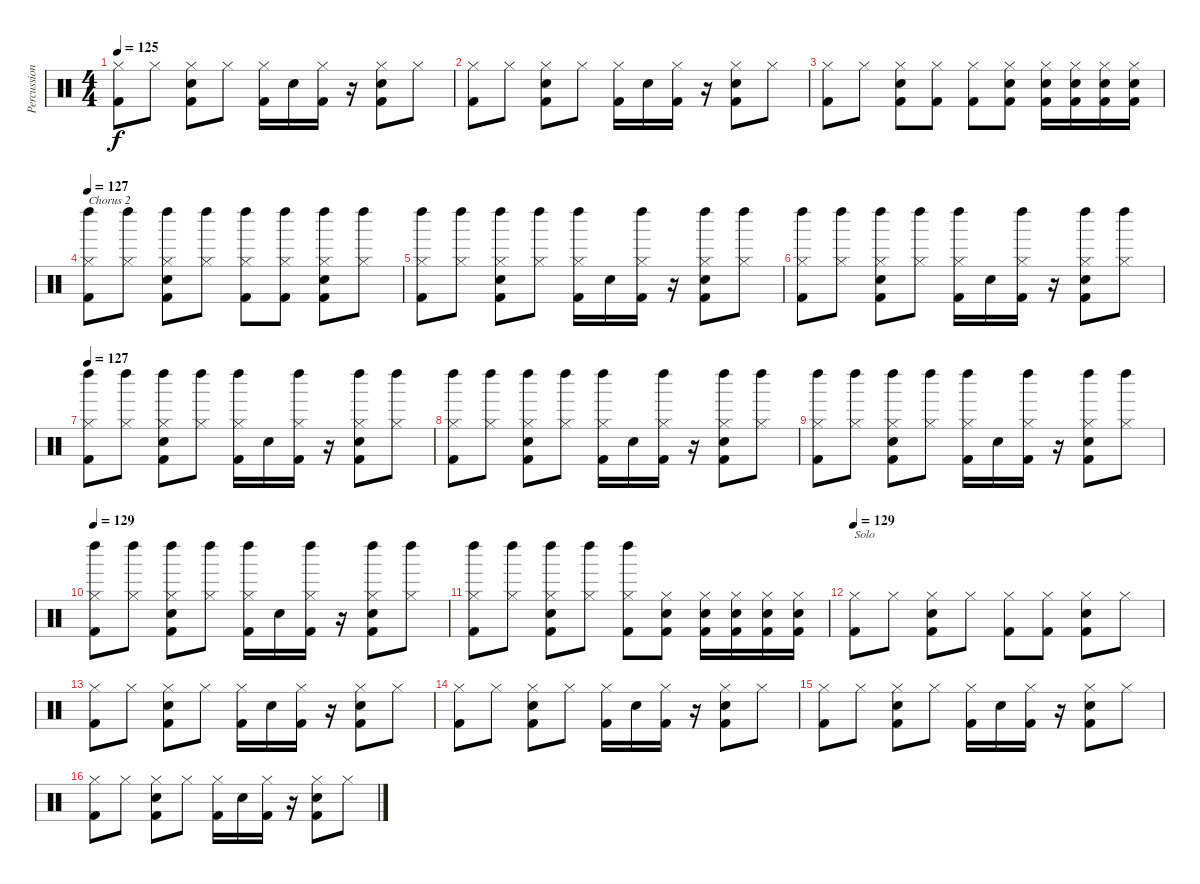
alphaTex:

\track ("Percussion" "Percussion") {instrument percussion}
\staff {score}
\articulation defaults
\ts (4 4)
\tempo 125
\clef neutral
\ks c
("Hi-Hat (closed)" "Kick (hit) 2").8{dy f} "Hi-Hat (closed)".8 ("Hi-Hat (closed)" "Electric Snare (hit)" "Kick (hit) 2").8 "Hi-Hat (closed)".8 ("Hi-Hat (closed)" "Kick (hit) 2").16 "Electric Snare (hit)".16 ("Hi-Hat (closed)" "Kick (hit) 2").16 r.16 ("Hi-Hat (closed)" "Electric Snare (hit)" "Kick (hit) 2").8 "Hi-Hat (closed)".8 |
("Hi-Hat (closed)" "Kick (hit) 2").8 "Hi-Hat (closed)".8 ("Hi-Hat (closed)" "Electric Snare (hit)" "Kick (hit) 2").8 "Hi-Hat (closed)".8 ("Hi-Hat (closed)" "Kick (hit) 2").16 "Electric Snare (hit)".16 ("Hi-Hat (closed)" "Kick (hit) 2").16 r.16 ("Hi-Hat (closed)" "Electric Snare (hit)" "Kick (hit) 2").8 "Hi-Hat (closed)".8 |
("Hi-Hat (closed)" "Kick (hit) 2").8 "Hi-Hat (closed)".8 ("Hi-Hat (closed)" "Electric Snare (hit)" "Kick (hit) 2").8 ("Hi-Hat (closed)" "Kick (hit) 2").8 ("Hi-Hat (closed)" "Kick (hit) 2").8 ("Hi-Hat (closed)" "Electric Snare (hit)" "Kick (hit) 2").8 ("Hi-Hat (closed)" "Electric Snare (hit)" "Kick (hit) 2").16 ("Hi-Hat (closed)" "Electric Snare (hit)" "Kick (hit) 2").16 ("Hi-Hat (closed)" "Electric Snare (hit)" "Kick (hit) 2").16 ("Hi-Hat (closed)" "Electric Snare (hit)" "Kick (hit) 2").16 |
\tempo 127
("Hi-Hat (closed)" "Kick (hit) 2" "Left Maraca (hit)").8{txt "Chorus 2"} ("Hi-Hat (closed)" "Left Maraca (hit)").8 ("Hi-Hat (closed)" "Electric Snare (hit)" "Kick (hit) 2" "Left Maraca (hit)").8 ("Hi-Hat (closed)" "Left Maraca (hit)").8 ("Hi-Hat (closed)" "Kick (hit) 2" "Left Maraca (hit)").8 ("Hi-Hat (closed)" "Kick (hit) 2" "Left Maraca (hit)").8 ("Hi-Hat (closed)" "Electric Snare (hit)" "Kick (hit) 2" "Left Maraca (hit)").8 ("Hi-Hat (closed)" "Left Maraca (hit)").8 |
("Hi-Hat (closed)" "Kick (hit) 2" "Left Maraca (hit)").8 ("Hi-Hat (closed)" "Left Maraca (hit)").8 ("Hi-Hat (closed)" "Electric Snare (hit)" "Kick (hit) 2" "Left Maraca (hit)").8 ("Hi-Hat (closed)" "Left Maraca (hit)").8 ("Hi-Hat (closed)" "Kick (hit) 2" "Left Maraca (hit)").16 "Electric Snare (hit)".16 ("Hi-Hat (closed)" "Kick (hit) 2" "Left Maraca (hit)").16 r.16 ("Hi-Hat (closed)" "Electric Snare (hit)" "Kick (hit) 2" "Left Maraca (hit)").8 ("Hi-Hat (closed)" "Left Maraca (hit)").8 |
("Hi-Hat (closed)" "Kick (hit) 2" "Left Maraca (hit)").8 ("Hi-Hat (closed)" "Left Maraca (hit)").8 ("Hi-Hat (closed)" "Electric Snare (hit)" "Kick (hit) 2" "Left Maraca (hit)").8 ("Hi-Hat (closed)" "Left Maraca (hit)").8 ("Hi-Hat (closed)" "Kick (hit) 2" "Left Maraca (hit)").16 "Electric Snare (hit)".16 ("Hi-Hat (closed)" "Kick (hit) 2" "Left Maraca (hit)").16 r.16 ("Hi-Hat (closed)" "Electric Snare (hit)" "Kick (hit) 2" "Left Maraca (hit)").8 ("Hi-Hat (closed)" "Left Maraca (hit)").8 |
\tempo 127
("Hi-Hat (closed)" "Kick (hit) 2" "Left Maraca (hit)").8 ("Hi-Hat (closed)" "Left Maraca (hit)").8 ("Hi-Hat (closed)" "Electric Snare (hit)" "Kick (hit) 2" "Left Maraca (hit)").8 ("Hi-Hat (closed)" "Left Maraca (hit)").8 ("Hi-Hat (closed)" "Kick (hit) 2" "Left Maraca (hit)").16 "Electric Snare (hit)".16 ("Hi-Hat (closed)" "Kick (hit) 2" "Left Maraca (hit)").16 r.16 ("Hi-Hat (closed)" "Electric Snare (hit)" "Kick (hit) 2" "Left Maraca (hit)").8 ("Hi-Hat (closed)" "Left Maraca (hit)").8 |
("Hi-Hat (closed)" "Kick (hit) 2" "Left Maraca (hit)").8 ("Hi-Hat (closed)" "Left Maraca (hit)").8 ("Hi-Hat (closed)" "Electric Snare (hit)" "Kick (hit) 2" "Left Maraca (hit)").8 ("Hi-Hat (closed)" "Left Maraca (hit)").8 ("Hi-Hat (closed)" "Kick (hit) 2" "Left Maraca (hit)").16 "Electric Snare (hit)".16 ("Hi-Hat (closed)" "Kick (hit) 2" "Left Maraca (hit)").16 r.16 ("Hi-Hat (closed)" "Electric Snare (hit)" "Kick (hit) 2" "Left Maraca (hit)").8 ("Hi-Hat (closed)" "Left Maraca (hit)").8 |
("Hi-Hat (closed)" "Kick (hit) 2" "Left Maraca (hit)").8 ("Hi-Hat (closed)" "Left Maraca (hit)").8 ("Hi-Hat (closed)" "Electric Snare (hit)" "Kick (hit) 2" "Left Maraca (hit)").8 ("Hi-Hat (closed)" "Left Maraca (hit)").8 ("Hi-Hat (closed)" "Kick (hit) 2" "Left Maraca (hit)").16 "Electric Snare (hit)".16 ("Hi-Hat (closed)" "Kick (hit) 2" "Left Maraca (hit)").16 r.16 ("Hi-Hat (closed)" "Electric Snare (hit)" "Kick (hit) 2" "Left Maraca (hit)").8 ("Hi-Hat (closed)" "Left Maraca (hit)").8 |
\tempo 129
("Hi-Hat (closed)" "Kick (hit) 2" "Left Maraca (hit)").8 ("Hi-Hat (closed)" "Left Maraca (hit)").8 ("Hi-Hat (closed)" "Electric Snare (hit)" "Kick (hit) 2" "Left Maraca (hit)").8 ("Hi-Hat (closed)" "Left Maraca (hit)").8 ("Hi-Hat (closed)" "Kick (hit) 2" "Left Maraca (hit)").16 "Electric Snare (hit)".16 ("Hi-Hat (closed)" "Kick (hit) 2" "Left Maraca (hit)").16 r.16 ("Hi-Hat (closed)" "Electric Snare (hit)" "Kick (hit) 2" "Left Maraca (hit)").8 ("Hi-Hat (closed)" "Left Maraca (hit)").8 |
("Hi-Hat (closed)" "Kick (hit) 2" "Left Maraca (hit)").8 ("Hi-Hat (closed)" "Left Maraca (hit)").8 ("Hi-Hat (closed)" "Electric Snare (hit)" "Kick (hit) 2" "Left Maraca (hit)").8 ("Hi-Hat (closed)" "Left Maraca (hit)").8 ("Hi-Hat (closed)" "Kick (hit) 2" "Left Maraca (hit)").8 ("Hi-Hat (closed)" "Electric Snare (hit)" "Kick (hit) 2").8 ("Hi-Hat (closed)" "Electric Snare (hit)" "Kick (hit) 2").16 ("Hi-Hat (closed)" "Electric Snare (hit)" "Kick (hit) 2").16 ("Hi-Hat (closed)" "Electric Snare (hit)" "Kick (hit) 2").16 ("Hi-Hat (closed)" "Electric Snare (hit)" "Kick (hit) 2").16 |
\tempo 129
("Hi-Hat (closed)" "Kick (hit) 2").8{txt "Solo"} "Hi-Hat (closed)".8 ("Hi-Hat (closed)" "Electric Snare (hit)" "Kick (hit) 2").8 "Hi-Hat (closed)".8 ("Hi-Hat (closed)" "Kick (hit) 2").8 ("Hi-Hat (closed)" "Kick (hit) 2").8 ("Hi-Hat (closed)" "Electric Snare (hit)" "Kick (hit) 2").8 "Hi-Hat (closed)".8 |
("Hi-Hat (closed)" "Kick (hit) 2").8 "Hi-Hat (closed)".8 ("Hi-Hat (closed)" "Electric Snare (hit)" "Kick (hit) 2").8 "Hi-Hat (closed)".8 ("Hi-Hat (closed)" "Kick (hit) 2").16 "Electric Snare (hit)".16 ("Hi-Hat (closed)" "Kick (hit) 2").16 r.16 ("Hi-Hat (closed)" "Electric Snare (hit)" "Kick (hit) 2").8 "Hi-Hat (closed)".8 |
("Hi-Hat (closed)" "Kick (hit) 2").8 "Hi-Hat (closed)".8 ("Hi-Hat (closed)" "Electric Snare (hit)" "Kick (hit) 2").8 "Hi-Hat (closed)".8 ("Hi-Hat (closed)" "Kick (hit) 2").16 "Electric Snare (hit)".16 ("Hi-Hat (closed)" "Kick (hit) 2").16 r.16 ("Hi-Hat (closed)" "Electric Snare (hit)" "Kick (hit) 2").8 "Hi-Hat (closed)".8 |
("Hi-Hat (closed)" "Kick (hit) 2").8 "Hi-Hat (closed)".8 ("Hi-Hat (closed)" "Electric Snare (hit)" "Kick (hit) 2").8 "Hi-Hat (closed)".8 ("Hi-Hat (closed)" "Kick (hit) 2").16 "Electric Snare (hit)".16 ("Hi-Hat (closed)" "Kick (hit) 2").16 r.16 ("Hi-Hat (closed)" "Electric Snare (hit)" "Kick (hit) 2").8 "Hi-Hat (closed)".8 |
("Hi-Hat (closed)" "Kick (hit) 2").8 "Hi-Hat (closed)".8 ("Hi-Hat (closed)" "Electric Snare (hit)" "Kick (hit) 2").8 "Hi-Hat (closed)".8 ("Hi-Hat (closed)" "Kick (hit) 2").16 "Electric Snare (hit)".16 ("Hi-Hat (closed)" "Kick (hit) 2").16 r.16 ("Hi-Hat (closed)" "Electric Snare (hit)" "Kick (hit) 2").8 "Hi-Hat (closed)".8
